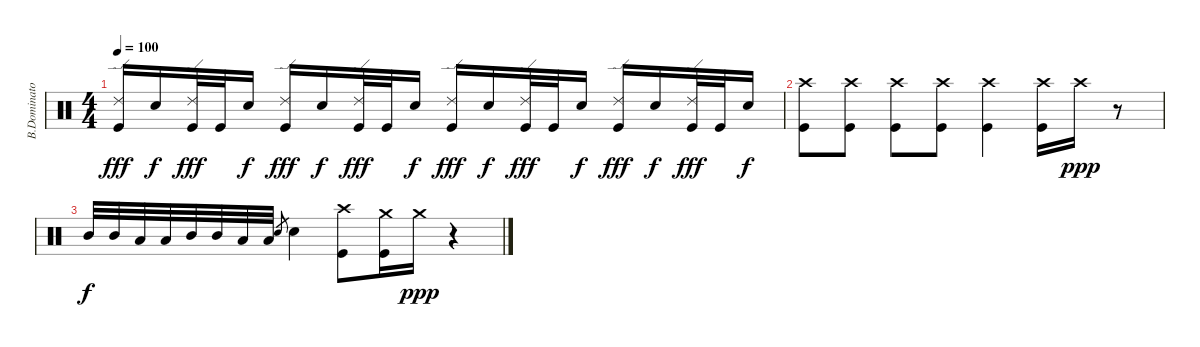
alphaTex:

\track ("B.Dominator" "B.Dominato") {instrument percussion}
\staff {score}
\articulation defaults
\ts (4 4)
\tempo 100
\clef neutral
\ks c
("Ride (edge) 2" "Kick (hit)").16{dy fff} "Snare (hit) 2".16{dy f} ("Ride (edge) 2" "Kick (hit)").32{dy fff} "Kick (hit)".32 "Snare (hit) 2".16{dy f} ("Ride (edge) 2" "Kick (hit)").16{dy fff} "Snare (hit) 2".16{dy f} ("Ride (edge) 2" "Kick (hit)").32{dy fff} "Kick (hit)".32 "Snare (hit) 2".16{dy f} ("Ride (edge) 2" "Kick (hit)").16{dy fff} "Snare (hit) 2".16{dy f} ("Ride (edge) 2" "Kick (hit)").32{dy fff} "Kick (hit)".32 "Snare (hit) 2".16{dy f} ("Ride (edge) 2" "Kick (hit)").16{dy fff} "Snare (hit) 2".16{dy f} ("Ride (edge) 2" "Kick (hit)").32{dy fff} "Kick (hit)".32 "Snare (hit) 2".16{dy f} |
("Crash high (hit)" "Kick (hit)").8 ("Crash high (hit)" "Kick (hit)").8 ("Crash high (hit)" "Kick (hit)").8 ("Crash high (hit)" "Kick (hit)").8 ("Crash high (hit)" "Kick (hit)").4 ("Crash high (hit)" "Kick (hit)").16 "Crash high (hit)".16{dy ppp} r.8 |
"Mid Tom (hit)".32{dy f} "Mid Tom (hit)".32 "Low Tom (hit)".32 "Low Tom (hit)".32 "Mid Tom (hit)".32 "Mid Tom (hit)".32 "Low Tom (hit)".32 "Low Tom (hit)".32 "Snare (hit) 2".8{gr} "Snare (hit) 2".4 ("Crash high (hit)" "Kick (hit)").8 ("Crash medium (hit)" "Kick (hit)").16 "Crash medium (hit)".16{dy ppp} r.4
